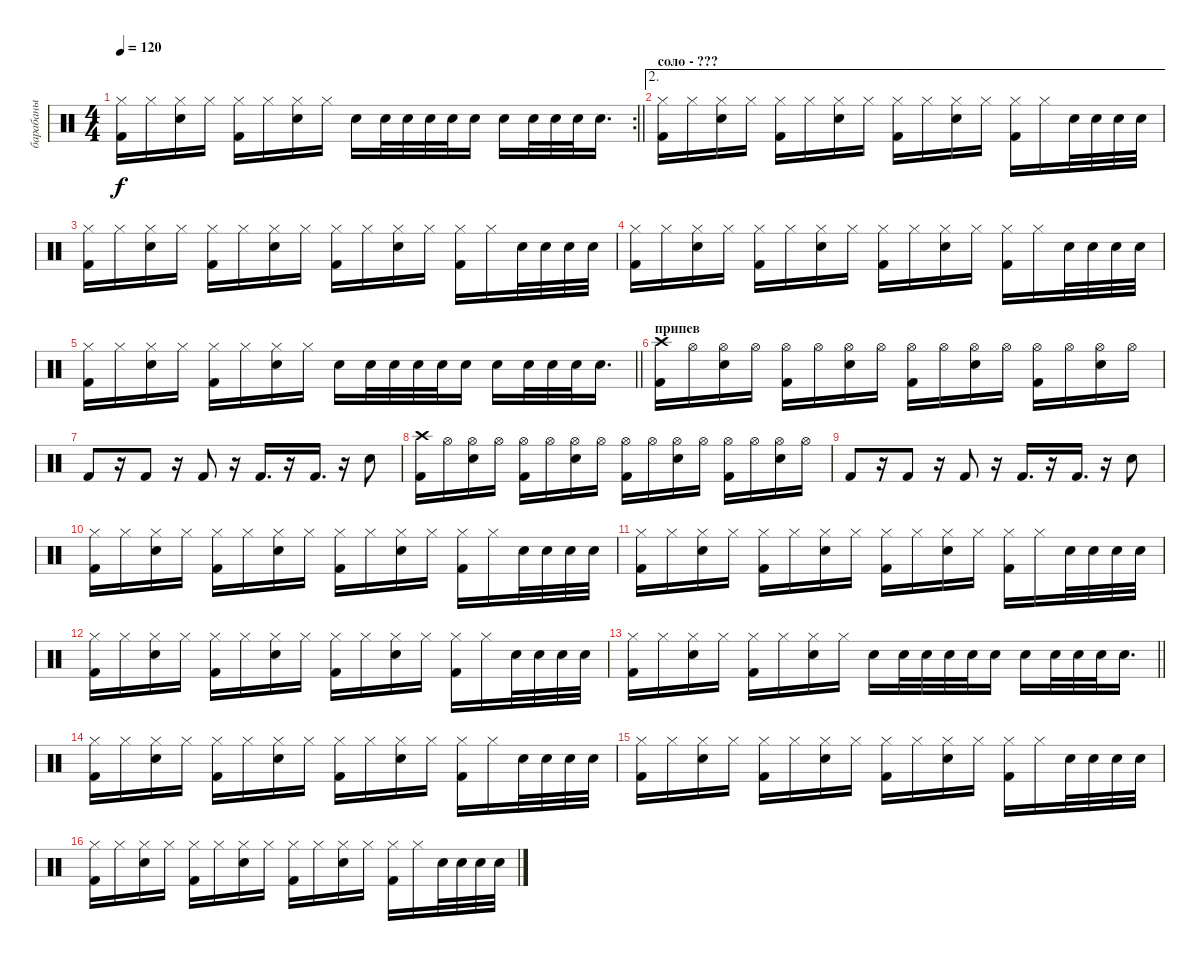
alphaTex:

\track ("барабаны" "барабаны") {instrument percussion}
\staff {score}
\articulation defaults
\rc 2
\ts (4 4)
\tempo 120
\clef neutral
\barLineRight lightlight
\ks c
("Hi-Hat (closed)" "Kick (hit) 2").16{dy f} "Hi-Hat (closed)".16 ("Hi-Hat (closed)" "Snare (hit) 2").16 "Hi-Hat (closed)".16 ("Hi-Hat (closed)" "Kick (hit) 2").16 "Hi-Hat (closed)".16 ("Hi-Hat (closed)" "Snare (hit) 2").16 "Hi-Hat (closed)".16 "Snare (hit) 2".16 "Snare (hit) 2".32 "Snare (hit) 2".32 "Snare (hit) 2".32 "Snare (hit) 2".32 "Snare (hit) 2".16 "Snare (hit) 2".16 "Snare (hit) 2".32 "Snare (hit) 2".32 "Snare (hit) 2".32 "Snare (hit) 2".16{d} |
\ae 2
\section ("" "соло - ???")
("Hi-Hat (closed)" "Kick (hit) 2").16 "Hi-Hat (closed)".16 ("Hi-Hat (closed)" "Snare (hit) 2").16 "Hi-Hat (closed)".16 ("Hi-Hat (closed)" "Kick (hit) 2").16 "Hi-Hat (closed)".16 ("Hi-Hat (closed)" "Snare (hit) 2").16 "Hi-Hat (closed)".16 ("Hi-Hat (closed)" "Kick (hit) 2").16 "Hi-Hat (closed)".16 ("Hi-Hat (closed)" "Snare (hit) 2").16 "Hi-Hat (closed)".16 ("Hi-Hat (closed)" "Kick (hit) 2").16 "Hi-Hat (closed)".16 "Snare (hit) 2".32 "Snare (hit) 2".32 "Snare (hit) 2".32 "Snare (hit) 2".32 |
("Hi-Hat (closed)" "Kick (hit) 2").16 "Hi-Hat (closed)".16 ("Hi-Hat (closed)" "Snare (hit) 2").16 "Hi-Hat (closed)".16 ("Hi-Hat (closed)" "Kick (hit) 2").16 "Hi-Hat (closed)".16 ("Hi-Hat (closed)" "Snare (hit) 2").16 "Hi-Hat (closed)".16 ("Hi-Hat (closed)" "Kick (hit) 2").16 "Hi-Hat (closed)".16 ("Hi-Hat (closed)" "Snare (hit) 2").16 "Hi-Hat (closed)".16 ("Hi-Hat (closed)" "Kick (hit) 2").16 "Hi-Hat (closed)".16 "Snare (hit) 2".32 "Snare (hit) 2".32 "Snare (hit) 2".32 "Snare (hit) 2".32 |
("Hi-Hat (closed)" "Kick (hit) 2").16 "Hi-Hat (closed)".16 ("Hi-Hat (closed)" "Snare (hit) 2").16 "Hi-Hat (closed)".16 ("Hi-Hat (closed)" "Kick (hit) 2").16 "Hi-Hat (closed)".16 ("Hi-Hat (closed)" "Snare (hit) 2").16 "Hi-Hat (closed)".16 ("Hi-Hat (closed)" "Kick (hit) 2").16 "Hi-Hat (closed)".16 ("Hi-Hat (closed)" "Snare (hit) 2").16 "Hi-Hat (closed)".16 ("Hi-Hat (closed)" "Kick (hit) 2").16 "Hi-Hat (closed)".16 "Snare (hit) 2".32 "Snare (hit) 2".32 "Snare (hit) 2".32 "Snare (hit) 2".32 |
\barLineRight lightlight
("Hi-Hat (closed)" "Kick (hit) 2").16 "Hi-Hat (closed)".16 ("Hi-Hat (closed)" "Snare (hit) 2").16 "Hi-Hat (closed)".16 ("Hi-Hat (closed)" "Kick (hit) 2").16 "Hi-Hat (closed)".16 ("Hi-Hat (closed)" "Snare (hit) 2").16 "Hi-Hat (closed)".16 "Snare (hit) 2".16 "Snare (hit) 2".32 "Snare (hit) 2".32 "Snare (hit) 2".32 "Snare (hit) 2".32 "Snare (hit) 2".16 "Snare (hit) 2".16 "Snare (hit) 2".32 "Snare (hit) 2".32 "Snare (hit) 2".32 "Snare (hit) 2".16{d} |
\section ("" "припев")
("Crash high (hit)" "Kick (hit) 2").16 "Hi-Hat (open)".16 ("Hi-Hat (open)" "Snare (hit) 2").16 "Hi-Hat (open)".16 ("Hi-Hat (open)" "Kick (hit) 2").16 "Hi-Hat (open)".16 ("Hi-Hat (open)" "Snare (hit) 2").16 "Hi-Hat (open)".16 ("Hi-Hat (open)" "Kick (hit) 2").16 "Hi-Hat (open)".16 ("Hi-Hat (open)" "Snare (hit) 2").16 "Hi-Hat (open)".16 ("Hi-Hat (open)" "Kick (hit) 2").16 "Hi-Hat (open)".16 ("Hi-Hat (open)" "Snare (hit) 2").16 "Hi-Hat (open)".16 |
"Kick (hit) 2".8 r.16 "Kick (hit) 2".8 r.16 "Kick (hit) 2".8 r.16 "Kick (hit) 2".16{d} r.16 "Kick (hit) 2".16{d} r.16 "Snare (hit) 2".8 |
("Crash high (hit)" "Kick (hit) 2").16 "Hi-Hat (open)".16 ("Hi-Hat (open)" "Snare (hit) 2").16 "Hi-Hat (open)".16 ("Hi-Hat (open)" "Kick (hit) 2").16 "Hi-Hat (open)".16 ("Hi-Hat (open)" "Snare (hit) 2").16 "Hi-Hat (open)".16 ("Hi-Hat (open)" "Kick (hit) 2").16 "Hi-Hat (open)".16 ("Hi-Hat (open)" "Snare (hit) 2").16 "Hi-Hat (open)".16 ("Hi-Hat (open)" "Kick (hit) 2").16 "Hi-Hat (open)".16 ("Hi-Hat (open)" "Snare (hit) 2").16 "Hi-Hat (open)".16 |
"Kick (hit) 2".8 r.16 "Kick (hit) 2".8 r.16 "Kick (hit) 2".8 r.16 "Kick (hit) 2".16{d} r.16 "Kick (hit) 2".16{d} r.16 "Snare (hit) 2".8 |
("Hi-Hat (closed)" "Kick (hit) 2").16 "Hi-Hat (closed)".16 ("Hi-Hat (closed)" "Snare (hit) 2").16 "Hi-Hat (closed)".16 ("Hi-Hat (closed)" "Kick (hit) 2").16 "Hi-Hat (closed)".16 ("Hi-Hat (closed)" "Snare (hit) 2").16 "Hi-Hat (closed)".16 ("Hi-Hat (closed)" "Kick (hit) 2").16 "Hi-Hat (closed)".16 ("Hi-Hat (closed)" "Snare (hit) 2").16 "Hi-Hat (closed)".16 ("Hi-Hat (closed)" "Kick (hit) 2").16 "Hi-Hat (closed)".16 "Snare (hit) 2".32 "Snare (hit) 2".32 "Snare (hit) 2".32 "Snare (hit) 2".32 |
("Hi-Hat (closed)" "Kick (hit) 2").16 "Hi-Hat (closed)".16 ("Hi-Hat (closed)" "Snare (hit) 2").16 "Hi-Hat (closed)".16 ("Hi-Hat (closed)" "Kick (hit) 2").16 "Hi-Hat (closed)".16 ("Hi-Hat (closed)" "Snare (hit) 2").16 "Hi-Hat (closed)".16 ("Hi-Hat (closed)" "Kick (hit) 2").16 "Hi-Hat (closed)".16 ("Hi-Hat (closed)" "Snare (hit) 2").16 "Hi-Hat (closed)".16 ("Hi-Hat (closed)" "Kick (hit) 2").16 "Hi-Hat (closed)".16 "Snare (hit) 2".32 "Snare (hit) 2".32 "Snare (hit) 2".32 "Snare (hit) 2".32 |
("Hi-Hat (closed)" "Kick (hit) 2").16 "Hi-Hat (closed)".16 ("Hi-Hat (closed)" "Snare (hit) 2").16 "Hi-Hat (closed)".16 ("Hi-Hat (closed)" "Kick (hit) 2").16 "Hi-Hat (closed)".16 ("Hi-Hat (closed)" "Snare (hit) 2").16 "Hi-Hat (closed)".16 ("Hi-Hat (closed)" "Kick (hit) 2").16 "Hi-Hat (closed)".16 ("Hi-Hat (closed)" "Snare (hit) 2").16 "Hi-Hat (closed)".16 ("Hi-Hat (closed)" "Kick (hit) 2").16 "Hi-Hat (closed)".16 "Snare (hit) 2".32 "Snare (hit) 2".32 "Snare (hit) 2".32 "Snare (hit) 2".32 |
\barLineRight lightlight
("Hi-Hat (closed)" "Kick (hit) 2").16 "Hi-Hat (closed)".16 ("Hi-Hat (closed)" "Snare (hit) 2").16 "Hi-Hat (closed)".16 ("Hi-Hat (closed)" "Kick (hit) 2").16 "Hi-Hat (closed)".16 ("Hi-Hat (closed)" "Snare (hit) 2").16 "Hi-Hat (closed)".16 "Snare (hit) 2".16 "Snare (hit) 2".32 "Snare (hit) 2".32 "Snare (hit) 2".32 "Snare (hit) 2".32 "Snare (hit) 2".16 "Snare (hit) 2".16 "Snare (hit) 2".32 "Snare (hit) 2".32 "Snare (hit) 2".32 "Snare (hit) 2".16{d} |
("Hi-Hat (closed)" "Kick (hit) 2").16 "Hi-Hat (closed)".16 ("Hi-Hat (closed)" "Snare (hit) 2").16 "Hi-Hat (closed)".16 ("Hi-Hat (closed)" "Kick (hit) 2").16 "Hi-Hat (closed)".16 ("Hi-Hat (closed)" "Snare (hit) 2").16 "Hi-Hat (closed)".16 ("Hi-Hat (closed)" "Kick (hit) 2").16 "Hi-Hat (closed)".16 ("Hi-Hat (closed)" "Snare (hit) 2").16 "Hi-Hat (closed)".16 ("Hi-Hat (closed)" "Kick (hit) 2").16 "Hi-Hat (closed)".16 "Snare (hit) 2".32 "Snare (hit) 2".32 "Snare (hit) 2".32 "Snare (hit) 2".32 |
("Hi-Hat (closed)" "Kick (hit) 2").16 "Hi-Hat (closed)".16 ("Hi-Hat (closed)" "Snare (hit) 2").16 "Hi-Hat (closed)".16 ("Hi-Hat (closed)" "Kick (hit) 2").16 "Hi-Hat (closed)".16 ("Hi-Hat (closed)" "Snare (hit) 2").16 "Hi-Hat (closed)".16 ("Hi-Hat (closed)" "Kick (hit) 2").16 "Hi-Hat (closed)".16 ("Hi-Hat (closed)" "Snare (hit) 2").16 "Hi-Hat (closed)".16 ("Hi-Hat (closed)" "Kick (hit) 2").16 "Hi-Hat (closed)".16 "Snare (hit) 2".32 "Snare (hit) 2".32 "Snare (hit) 2".32 "Snare (hit) 2".32 |
("Hi-Hat (closed)" "Kick (hit) 2").16 "Hi-Hat (closed)".16 ("Hi-Hat (closed)" "Snare (hit) 2").16 "Hi-Hat (closed)".16 ("Hi-Hat (closed)" "Kick (hit) 2").16 "Hi-Hat (closed)".16 ("Hi-Hat (closed)" "Snare (hit) 2").16 "Hi-Hat (closed)".16 ("Hi-Hat (closed)" "Kick (hit) 2").16 "Hi-Hat (closed)".16 ("Hi-Hat (closed)" "Snare (hit) 2").16 "Hi-Hat (closed)".16 ("Hi-Hat (closed)" "Kick (hit) 2").16 "Hi-Hat (closed)".16 "Snare (hit) 2".32 "Snare (hit) 2".32 "Snare (hit) 2".32 "Snare (hit) 2".32
